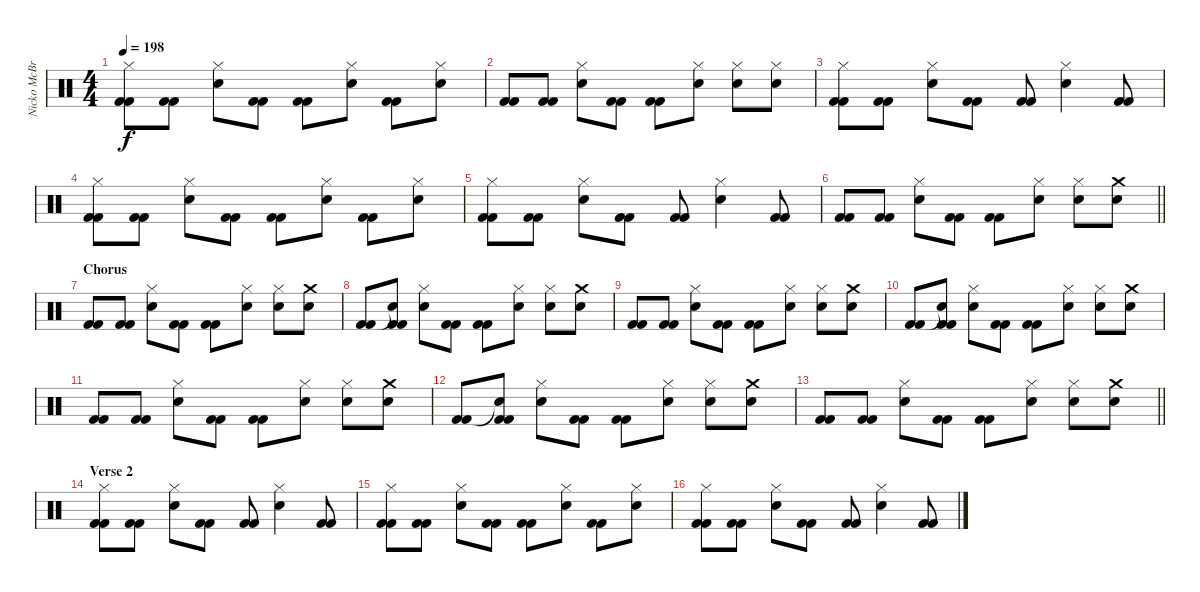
\track ("Nicko McBrain" "Nicko McBr") {instrument percussion}
\staff {score}
\articulation defaults
\ts (4 4)
\tempo 198
\clef neutral
\ks c
("Hi-Hat (closed)" "Kick (hit) 2" "Kick (hit) 2").8{dy f} ("Kick (hit) 2" "Kick (hit) 2").8 ("Hi-Hat (closed)" "Electric Snare (hit)").8 ("Kick (hit) 2" "Kick (hit) 2").8 ("Kick (hit) 2" "Kick (hit) 2").8 ("Hi-Hat (closed)" "Electric Snare (hit)").8 ("Kick (hit) 2" "Kick (hit) 2").8 ("Hi-Hat (closed)" "Electric Snare (hit)").8 |
("Kick (hit) 2" "Kick (hit) 2").8 ("Kick (hit) 2" "Kick (hit) 2").8 ("Hi-Hat (closed)" "Electric Snare (hit)").8 ("Kick (hit) 2" "Kick (hit) 2").8 ("Kick (hit) 2" "Kick (hit) 2").8 ("Hi-Hat (closed)" "Electric Snare (hit)").8 ("Hi-Hat (closed)" "Electric Snare (hit)").8 ("Hi-Hat (closed)" "Electric Snare (hit)").8 |
("Hi-Hat (closed)" "Kick (hit) 2" "Kick (hit) 2").8 ("Kick (hit) 2" "Kick (hit) 2").8 ("Hi-Hat (closed)" "Electric Snare (hit)").8 ("Kick (hit) 2" "Kick (hit) 2").8 ("Kick (hit) 2" "Kick (hit) 2").8 ("Hi-Hat (closed)" "Electric Snare (hit)").4 ("Kick (hit) 2" "Kick (hit) 2").8 |
("Hi-Hat (closed)" "Kick (hit) 2" "Kick (hit) 2").8 ("Kick (hit) 2" "Kick (hit) 2").8 ("Hi-Hat (closed)" "Electric Snare (hit)").8 ("Kick (hit) 2" "Kick (hit) 2").8 ("Kick (hit) 2" "Kick (hit) 2").8 ("Hi-Hat (closed)" "Electric Snare (hit)").8 ("Kick (hit) 2" "Kick (hit) 2").8 ("Hi-Hat (closed)" "Electric Snare (hit)").8 |
("Hi-Hat (closed)" "Kick (hit) 2" "Kick (hit) 2").8 ("Kick (hit) 2" "Kick (hit) 2").8 ("Hi-Hat (closed)" "Electric Snare (hit)").8 ("Kick (hit) 2" "Kick (hit) 2").8 ("Kick (hit) 2" "Kick (hit) 2").8 ("Hi-Hat (closed)" "Electric Snare (hit)").4 ("Kick (hit) 2" "Kick (hit) 2").8 |
\barLineRight lightlight
("Kick (hit) 2" "Kick (hit) 2").8 ("Kick (hit) 2" "Kick (hit) 2").8 ("Hi-Hat (closed)" "Electric Snare (hit)").8 ("Kick (hit) 2" "Kick (hit) 2").8 ("Kick (hit) 2" "Kick (hit) 2").8 ("Hi-Hat (closed)" "Electric Snare (hit)").8 ("Hi-Hat (closed)" "Electric Snare (hit)").8 ("Crash medium (hit)" "Electric Snare (hit)").8 |
\section ("" "Chorus")
("Kick (hit) 2" "Kick (hit) 2").8 ("Kick (hit) 2" "Kick (hit) 2").8 ("Hi-Hat (closed)" "Electric Snare (hit)").8 ("Kick (hit) 2" "Kick (hit) 2").8 ("Kick (hit) 2" "Kick (hit) 2").8 ("Hi-Hat (closed)" "Electric Snare (hit)").8 ("Hi-Hat (closed)" "Electric Snare (hit)").8 ("Crash medium (hit)" "Electric Snare (hit)").8 |
("Kick (hit) 2" "Kick (hit) 2").8 ("Snare (hit)"{t} "Kick (hit) 2" "Kick (hit) 2").8 ("Hi-Hat (closed)" "Electric Snare (hit)").8 ("Kick (hit) 2" "Kick (hit) 2").8 ("Kick (hit) 2" "Kick (hit) 2").8 ("Hi-Hat (closed)" "Electric Snare (hit)").8 ("Hi-Hat (closed)" "Electric Snare (hit)").8 ("Crash medium (hit)" "Electric Snare (hit)").8 |
("Kick (hit) 2" "Kick (hit) 2").8 ("Kick (hit) 2" "Kick (hit) 2").8 ("Hi-Hat (closed)" "Electric Snare (hit)").8 ("Kick (hit) 2" "Kick (hit) 2").8 ("Kick (hit) 2" "Kick (hit) 2").8 ("Hi-Hat (closed)" "Electric Snare (hit)").8 ("Hi-Hat (closed)" "Electric Snare (hit)").8 ("Crash medium (hit)" "Electric Snare (hit)").8 |
("Kick (hit) 2" "Kick (hit) 2").8 ("Snare (hit)"{t} "Kick (hit) 2" "Kick (hit) 2").8 ("Hi-Hat (closed)" "Electric Snare (hit)").8 ("Kick (hit) 2" "Kick (hit) 2").8 ("Kick (hit) 2" "Kick (hit) 2").8 ("Hi-Hat (closed)" "Electric Snare (hit)").8 ("Hi-Hat (closed)" "Electric Snare (hit)").8 ("Crash medium (hit)" "Electric Snare (hit)").8 |
("Kick (hit) 2" "Kick (hit) 2").8 ("Kick (hit) 2" "Kick (hit) 2").8 ("Hi-Hat (closed)" "Electric Snare (hit)").8 ("Kick (hit) 2" "Kick (hit) 2").8 ("Kick (hit) 2" "Kick (hit) 2").8 ("Hi-Hat (closed)" "Electric Snare (hit)").8 ("Hi-Hat (closed)" "Electric Snare (hit)").8 ("Crash medium (hit)" "Electric Snare (hit)").8 |
("Kick (hit) 2" "Kick (hit) 2").8 ("Snare (hit)"{t} "Kick (hit) 2" "Kick (hit) 2").8 ("Hi-Hat (closed)" "Electric Snare (hit)").8 ("Kick (hit) 2" "Kick (hit) 2").8 ("Kick (hit) 2" "Kick (hit) 2").8 ("Hi-Hat (closed)" "Electric Snare (hit)").8 ("Hi-Hat (closed)" "Electric Snare (hit)").8 ("Crash medium (hit)" "Electric Snare (hit)").8 |
\barLineRight lightlight
("Kick (hit) 2" "Kick (hit) 2").8 ("Kick (hit) 2" "Kick (hit) 2").8 ("Hi-Hat (closed)" "Electric Snare (hit)").8 ("Kick (hit) 2" "Kick (hit) 2").8 ("Kick (hit) 2" "Kick (hit) 2").8 ("Hi-Hat (closed)" "Electric Snare (hit)").8 ("Hi-Hat (closed)" "Electric Snare (hit)").8 ("Crash medium (hit)" "Electric Snare (hit)").8 |
\section ("" "Verse 2")
("Hi-Hat (closed)" "Kick (hit) 2" "Kick (hit) 2").8 ("Kick (hit) 2" "Kick (hit) 2").8 ("Hi-Hat (closed)" "Electric Snare (hit)").8 ("Kick (hit) 2" "Kick (hit) 2").8 ("Kick (hit) 2" "Kick (hit) 2").8 ("Hi-Hat (closed)" "Electric Snare (hit)").4 ("Kick (hit) 2" "Kick (hit) 2").8 |
("Hi-Hat (closed)" "Kick (hit) 2" "Kick (hit) 2").8 ("Kick (hit) 2" "Kick (hit) 2").8 ("Hi-Hat (closed)" "Electric Snare (hit)").8 ("Kick (hit) 2" "Kick (hit) 2").8 ("Kick (hit) 2" "Kick (hit) 2").8 ("Hi-Hat (closed)" "Electric Snare (hit)").8 ("Kick (hit) 2" "Kick (hit) 2").8 ("Hi-Hat (closed)" "Electric Snare (hit)").8 |
("Hi-Hat (closed)" "Kick (hit) 2" "Kick (hit) 2").8 ("Kick (hit) 2" "Kick (hit) 2").8 ("Hi-Hat (closed)" "Electric Snare (hit)").8 ("Kick (hit) 2" "Kick (hit) 2").8 ("Kick (hit) 2" "Kick (hit) 2").8 ("Hi-Hat (closed)" "Electric Snare (hit)").4 ("Kick (hit) 2" "Kick (hit) 2").8
